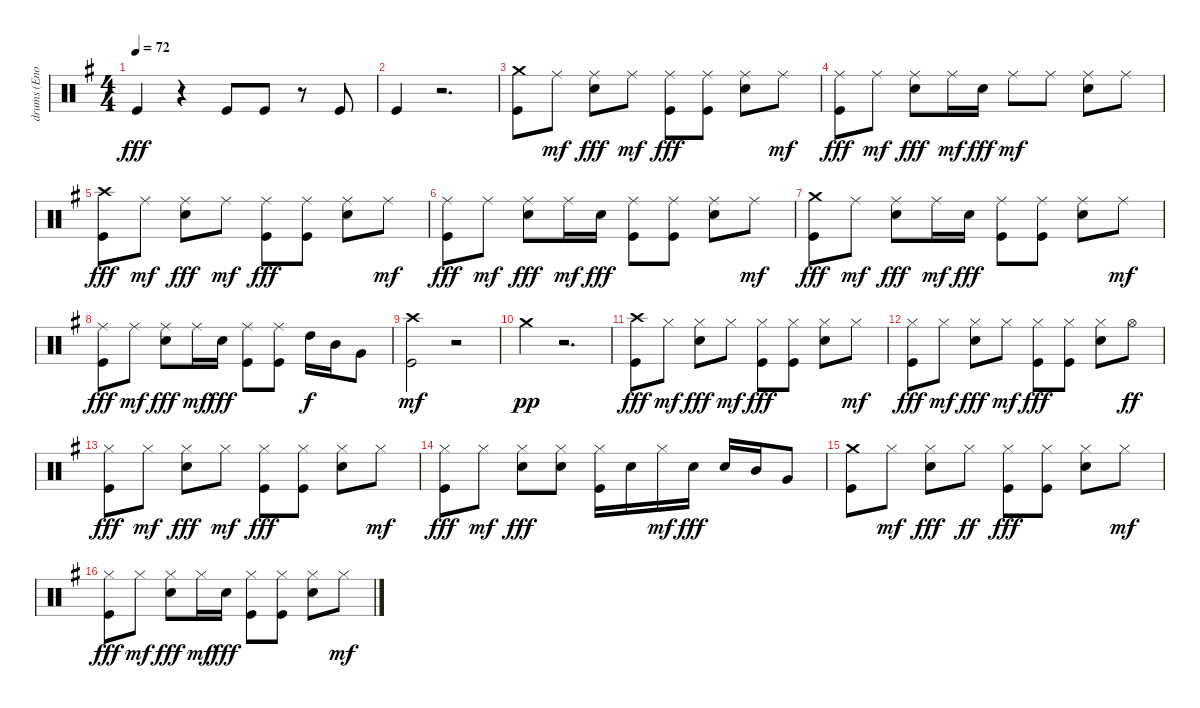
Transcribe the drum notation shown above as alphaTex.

\track ("drums (Enoch)" "drums (Eno") {instrument percussion}
\staff {score}
\articulation defaults
\ts (4 4)
\tempo 72
\clef neutral
\ks g "Kick (hit)".4{dy fff}
r.4 "Kick (hit)".8 "Kick (hit)".8 r.8 "Kick (hit)".8 |
"Kick (hit)".4 r.2{d} |
("Crash medium (hit)" "Kick (hit)").8 "Ride (middle)".8{dy mf} ("Ride (middle)" "Snare (hit) 2").8{dy fff} "Ride (middle)".8{dy mf} ("Ride (middle)" "Kick (hit)").8{dy fff} ("Ride (middle)" "Kick (hit)").8 ("Ride (middle)" "Snare (hit) 2").8 "Ride (middle)".8{dy mf} |
("Ride (middle)" "Kick (hit)").8{dy fff} "Ride (middle)".8{dy mf} ("Ride (middle)" "Snare (hit) 2").8{dy fff} "Ride (middle)".16{dy mf} "Snare (hit) 2".16{dy fff} "Ride (middle)".8{dy mf} "Ride (middle)".8 ("Ride (middle)" "Snare (hit) 2").8 "Ride (middle)".8 |
("Crash high (hit)" "Kick (hit)").8{dy fff} "Ride (middle)".8{dy mf} ("Ride (middle)" "Snare (hit) 2").8{dy fff} "Ride (middle)".8{dy mf} ("Ride (middle)" "Kick (hit)").8{dy fff} ("Ride (middle)" "Kick (hit)").8 ("Ride (middle)" "Snare (hit) 2").8 "Ride (middle)".8{dy mf} |
("Ride (middle)" "Kick (hit)").8{dy fff} "Ride (middle)".8{dy mf} ("Ride (middle)" "Snare (hit) 2").8{dy fff} "Ride (middle)".16{dy mf} "Snare (hit) 2".16{dy fff} ("Ride (middle)" "Kick (hit)").8 ("Ride (middle)" "Kick (hit)").8 ("Ride (middle)" "Snare (hit) 2").8 "Ride (middle)".8{dy mf} |
("Crash medium (hit)" "Kick (hit)").8{dy fff} "Ride (middle)".8{dy mf} ("Ride (middle)" "Snare (hit) 2").8{dy fff} "Ride (middle)".16{dy mf} "Snare (hit) 2".16{dy fff} ("Ride (middle)" "Kick (hit)").8 ("Ride (middle)" "Kick (hit)").8 ("Ride (middle)" "Snare (hit) 2").8 "Ride (middle)".8{dy mf} |
("Ride (middle)" "Kick (hit)").8{dy fff} "Ride (middle)".8{dy mf} ("Ride (middle)" "Snare (hit) 2").8{dy fff} "Ride (middle)".16{dy mf} "Snare (hit) 2".16{dy fff} ("Ride (middle)" "Kick (hit)").8 ("Ride (middle)" "Kick (hit)").8 "High Tom (hit)".16{dy f} "Mid Tom (hit)".16 "Very Low Tom (hit)".8 |
("Crash high (hit)" "Kick (hit)").2{dy mf} r.2 |
"Crash medium (hit)".4{dy pp} r.2{d} |
("Crash high (hit)" "Kick (hit)").8{dy fff} "Hi-Hat (closed)".8{dy mf} ("Hi-Hat (closed)" "Snare (hit) 2").8{dy fff} "Hi-Hat (closed)".8{dy mf} ("Hi-Hat (closed)" "Kick (hit)").8{dy fff} ("Hi-Hat (closed)" "Kick (hit)").8 ("Hi-Hat (closed)" "Snare (hit) 2").8 "Hi-Hat (closed)".8{dy mf} |
("Hi-Hat (closed)" "Kick (hit)").8{dy fff} "Hi-Hat (closed)".8{dy mf} ("Hi-Hat (closed)" "Snare (hit) 2").8{dy fff} "Hi-Hat (closed)".8{dy mf} ("Hi-Hat (closed)" "Kick (hit)").8{dy fff} ("Hi-Hat (closed)" "Kick (hit)").8 ("Hi-Hat (closed)" "Snare (hit) 2").8 "Hi-Hat (open)".8{dy ff} |
("Hi-Hat (closed)" "Kick (hit)").8{dy fff} "Hi-Hat (closed)".8{dy mf} ("Hi-Hat (closed)" "Snare (hit) 2").8{dy fff} "Hi-Hat (closed)".8{dy mf} ("Hi-Hat (closed)" "Kick (hit)").8{dy fff} ("Hi-Hat (closed)" "Kick (hit)").8 ("Hi-Hat (closed)" "Snare (hit) 2").8 "Hi-Hat (closed)".8{dy mf} |
("Hi-Hat (closed)" "Kick (hit)").8{dy fff} "Hi-Hat (closed)".8{dy mf} ("Hi-Hat (closed)" "Snare (hit) 2").8{dy fff} ("Hi-Hat (closed)" "Snare (hit) 2").8 ("Hi-Hat (closed)" "Kick (hit)").16 "Snare (hit) 2".16 "Hi-Hat (closed)".16{dy mf} "Snare (hit) 2".16{dy fff} "Snare (hit) 2".16 "Mid Tom (hit)".16 "Very Low Tom (hit)".8 |
("Crash medium (hit)" "Kick (hit)").8 "Hi-Hat (closed)".8{dy mf} ("Hi-Hat (closed)" "Snare (hit) 2").8{dy fff} "Hi-Hat (closed)".8{dy ff} ("Hi-Hat (closed)" "Kick (hit)").8{dy fff} ("Hi-Hat (closed)" "Kick (hit)").8 ("Hi-Hat (closed)" "Snare (hit) 2").8 "Hi-Hat (closed)".8{dy mf} |
("Hi-Hat (closed)" "Kick (hit)").8{dy fff} "Hi-Hat (closed)".8{dy mf} ("Hi-Hat (closed)" "Snare (hit) 2").8{dy fff} "Hi-Hat (closed)".16{dy mf} "Snare (hit) 2".16{dy fff} ("Hi-Hat (closed)" "Kick (hit)").8 ("Hi-Hat (closed)" "Kick (hit)").8 ("Hi-Hat (closed)" "Snare (hit) 2").8 "Hi-Hat (closed)".8{dy mf}
